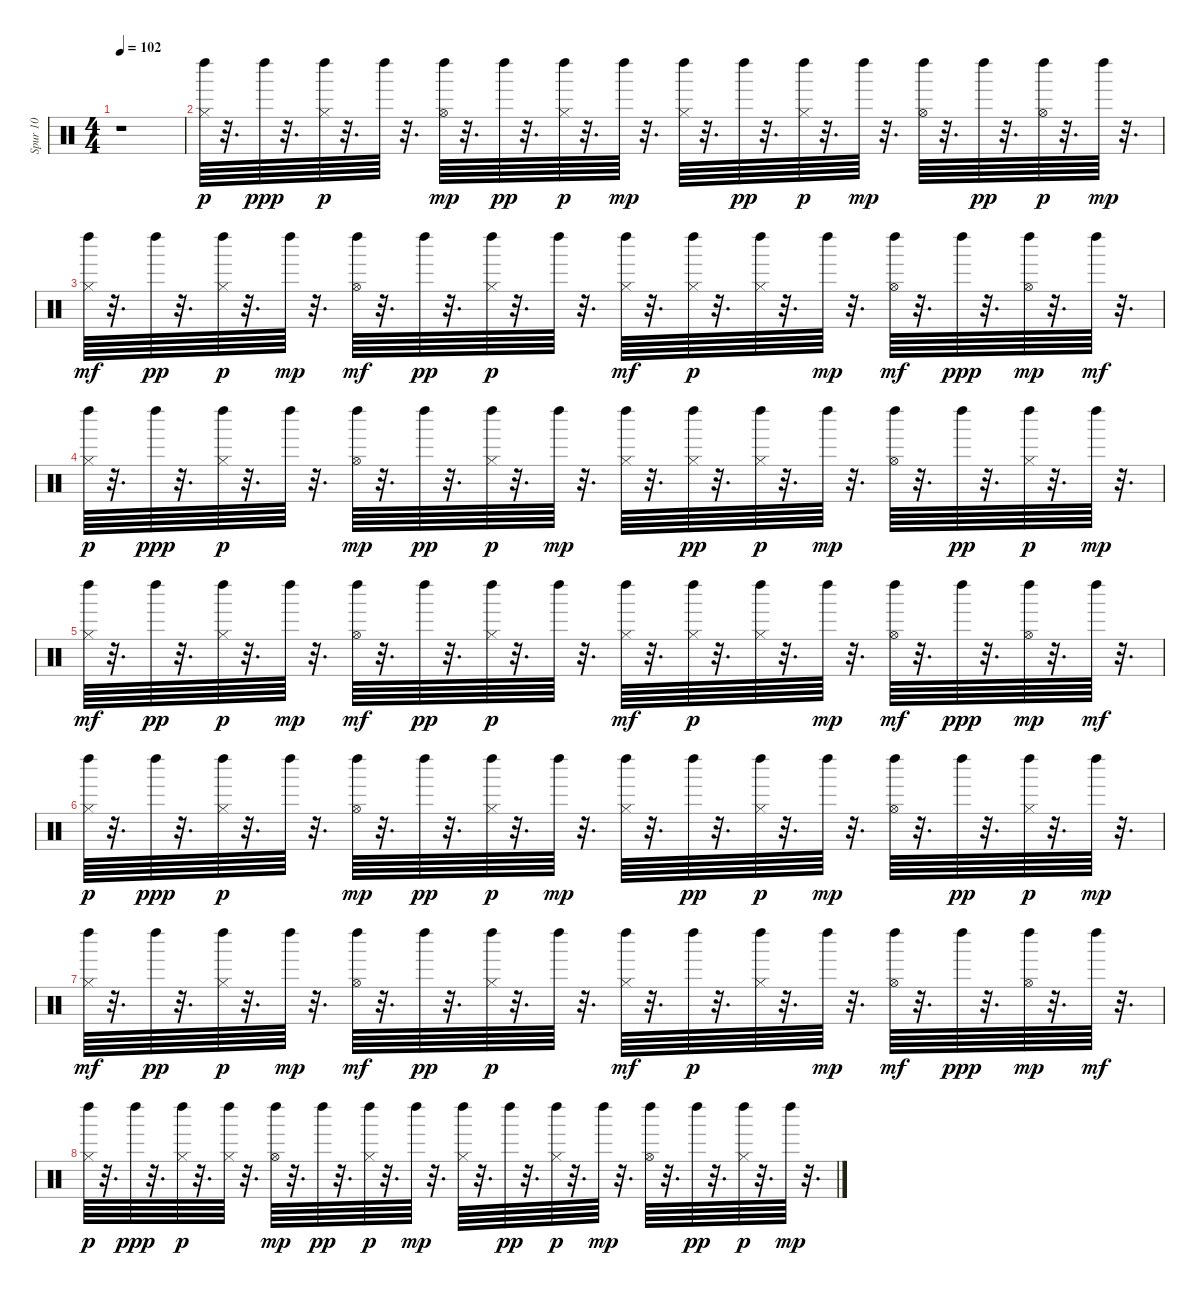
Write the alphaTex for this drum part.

\track ("Spur 10" "Spur 10") {instrument percussion}
\staff {score}
\articulation defaults
\ts (4 4)
\tempo 102
\clef neutral
\ks c
r.1{dy p} |
("Hi-Hat (closed)" "Left Maraca (hit)").64 r.32{d} "Left Maraca (hit)".64{dy ppp} r.32{d} ("Hi-Hat (closed)" "Left Maraca (hit)").64{dy p} r.32{d} "Left Maraca (hit)".64 r.32{d} ("Hi-Hat (open)" "Left Maraca (hit)").64{dy mp} r.32{d} "Left Maraca (hit)".64{dy pp} r.32{d} ("Hi-Hat (closed)" "Left Maraca (hit)").64{dy p} r.32{d} "Left Maraca (hit)".64{dy mp} r.32{d} ("Hi-Hat (closed)" "Left Maraca (hit)").64 r.32{d} "Left Maraca (hit)".64{dy pp} r.32{d} ("Hi-Hat (closed)" "Left Maraca (hit)").64{dy p} r.32{d} "Left Maraca (hit)".64{dy mp} r.32{d} ("Hi-Hat (open)" "Left Maraca (hit)").64 r.32{d} "Left Maraca (hit)".64{dy pp} r.32{d} ("Hi-Hat (open)" "Left Maraca (hit)").64{dy p} r.32{d} "Left Maraca (hit)".64{dy mp} r.32{d} |
("Hi-Hat (closed)" "Left Maraca (hit)").64{dy mf} r.32{d} "Left Maraca (hit)".64{dy pp} r.32{d} ("Hi-Hat (closed)" "Left Maraca (hit)").64{dy p} r.32{d} "Left Maraca (hit)".64{dy mp} r.32{d} ("Hi-Hat (open)" "Left Maraca (hit)").64{dy mf} r.32{d} "Left Maraca (hit)".64{dy pp} r.32{d} ("Hi-Hat (closed)" "Left Maraca (hit)").64{dy p} r.32{d} "Left Maraca (hit)".64 r.32{d} ("Hi-Hat (closed)" "Left Maraca (hit)").64{dy mf} r.32{d} ("Hi-Hat (closed)" "Left Maraca (hit)").64{dy p} r.32{d} ("Hi-Hat (closed)" "Left Maraca (hit)").64 r.32{d} "Left Maraca (hit)".64{dy mp} r.32{d} ("Hi-Hat (open)" "Left Maraca (hit)").64{dy mf} r.32{d} "Left Maraca (hit)".64{dy ppp} r.32{d} ("Hi-Hat (open)" "Left Maraca (hit)").64{dy mp} r.32{d} "Left Maraca (hit)".64{dy mf} r.32{d} |
("Hi-Hat (closed)" "Left Maraca (hit)").64{dy p} r.32{d} "Left Maraca (hit)".64{dy ppp} r.32{d} ("Hi-Hat (closed)" "Left Maraca (hit)").64{dy p} r.32{d} "Left Maraca (hit)".64 r.32{d} ("Hi-Hat (open)" "Left Maraca (hit)").64{dy mp} r.32{d} "Left Maraca (hit)".64{dy pp} r.32{d} ("Hi-Hat (closed)" "Left Maraca (hit)").64{dy p} r.32{d} "Left Maraca (hit)".64{dy mp} r.32{d} ("Hi-Hat (closed)" "Left Maraca (hit)").64 r.32{d} ("Hi-Hat (closed)" "Left Maraca (hit)").64{dy pp} r.32{d} ("Hi-Hat (closed)" "Left Maraca (hit)").64{dy p} r.32{d} "Left Maraca (hit)".64{dy mp} r.32{d} ("Hi-Hat (open)" "Left Maraca (hit)").64 r.32{d} "Left Maraca (hit)".64{dy pp} r.32{d} ("Hi-Hat (closed)" "Left Maraca (hit)").64{dy p} r.32{d} "Left Maraca (hit)".64{dy mp} r.32{d} |
("Hi-Hat (closed)" "Left Maraca (hit)").64{dy mf} r.32{d} "Left Maraca (hit)".64{dy pp} r.32{d} ("Hi-Hat (closed)" "Left Maraca (hit)").64{dy p} r.32{d} "Left Maraca (hit)".64{dy mp} r.32{d} ("Hi-Hat (open)" "Left Maraca (hit)").64{dy mf} r.32{d} "Left Maraca (hit)".64{dy pp} r.32{d} ("Hi-Hat (closed)" "Left Maraca (hit)").64{dy p} r.32{d} "Left Maraca (hit)".64 r.32{d} ("Hi-Hat (closed)" "Left Maraca (hit)").64{dy mf} r.32{d} ("Hi-Hat (closed)" "Left Maraca (hit)").64{dy p} r.32{d} ("Hi-Hat (closed)" "Left Maraca (hit)").64 r.32{d} "Left Maraca (hit)".64{dy mp} r.32{d} ("Hi-Hat (open)" "Left Maraca (hit)").64{dy mf} r.32{d} "Left Maraca (hit)".64{dy ppp} r.32{d} ("Hi-Hat (open)" "Left Maraca (hit)").64{dy mp} r.32{d} "Left Maraca (hit)".64{dy mf} r.32{d} |
("Hi-Hat (closed)" "Left Maraca (hit)").64{dy p} r.32{d} "Left Maraca (hit)".64{dy ppp} r.32{d} ("Hi-Hat (closed)" "Left Maraca (hit)").64{dy p} r.32{d} "Left Maraca (hit)".64 r.32{d} ("Hi-Hat (open)" "Left Maraca (hit)").64{dy mp} r.32{d} "Left Maraca (hit)".64{dy pp} r.32{d} ("Hi-Hat (closed)" "Left Maraca (hit)").64{dy p} r.32{d} "Left Maraca (hit)".64{dy mp} r.32{d} ("Hi-Hat (closed)" "Left Maraca (hit)").64 r.32{d} "Left Maraca (hit)".64{dy pp} r.32{d} ("Hi-Hat (closed)" "Left Maraca (hit)").64{dy p} r.32{d} "Left Maraca (hit)".64{dy mp} r.32{d} ("Hi-Hat (open)" "Left Maraca (hit)").64 r.32{d} "Left Maraca (hit)".64{dy pp} r.32{d} ("Hi-Hat (closed)" "Left Maraca (hit)").64{dy p} r.32{d} "Left Maraca (hit)".64{dy mp} r.32{d} |
("Hi-Hat (closed)" "Left Maraca (hit)").64{dy mf} r.32{d} "Left Maraca (hit)".64{dy pp} r.32{d} ("Hi-Hat (closed)" "Left Maraca (hit)").64{dy p} r.32{d} "Left Maraca (hit)".64{dy mp} r.32{d} ("Hi-Hat (open)" "Left Maraca (hit)").64{dy mf} r.32{d} "Left Maraca (hit)".64{dy pp} r.32{d} ("Hi-Hat (closed)" "Left Maraca (hit)").64{dy p} r.32{d} "Left Maraca (hit)".64 r.32{d} ("Hi-Hat (closed)" "Left Maraca (hit)").64{dy mf} r.32{d} "Left Maraca (hit)".64{dy p} r.32{d} ("Hi-Hat (closed)" "Left Maraca (hit)").64 r.32{d} "Left Maraca (hit)".64{dy mp} r.32{d} ("Hi-Hat (open)" "Left Maraca (hit)").64{dy mf} r.32{d} "Left Maraca (hit)".64{dy ppp} r.32{d} ("Hi-Hat (open)" "Left Maraca (hit)").64{dy mp} r.32{d} "Left Maraca (hit)".64{dy mf} r.32{d} |
("Hi-Hat (closed)" "Left Maraca (hit)").64{dy p} r.32{d} "Left Maraca (hit)".64{dy ppp} r.32{d} ("Hi-Hat (closed)" "Left Maraca (hit)").64{dy p} r.32{d} ("Hi-Hat (closed)" "Left Maraca (hit)").64 r.32{d} ("Hi-Hat (open)" "Left Maraca (hit)").64{dy mp} r.32{d} "Left Maraca (hit)".64{dy pp} r.32{d} ("Hi-Hat (closed)" "Left Maraca (hit)").64{dy p} r.32{d} "Left Maraca (hit)".64{dy mp} r.32{d} ("Hi-Hat (closed)" "Left Maraca (hit)").64 r.32{d} "Left Maraca (hit)".64{dy pp} r.32{d} ("Hi-Hat (closed)" "Left Maraca (hit)").64{dy p} r.32{d} "Left Maraca (hit)".64{dy mp} r.32{d} ("Hi-Hat (open)" "Left Maraca (hit)").64 r.32{d} "Left Maraca (hit)".64{dy pp} r.32{d} ("Hi-Hat (closed)" "Left Maraca (hit)").64{dy p} r.32{d} "Left Maraca (hit)".64{dy mp} r.32{d}
